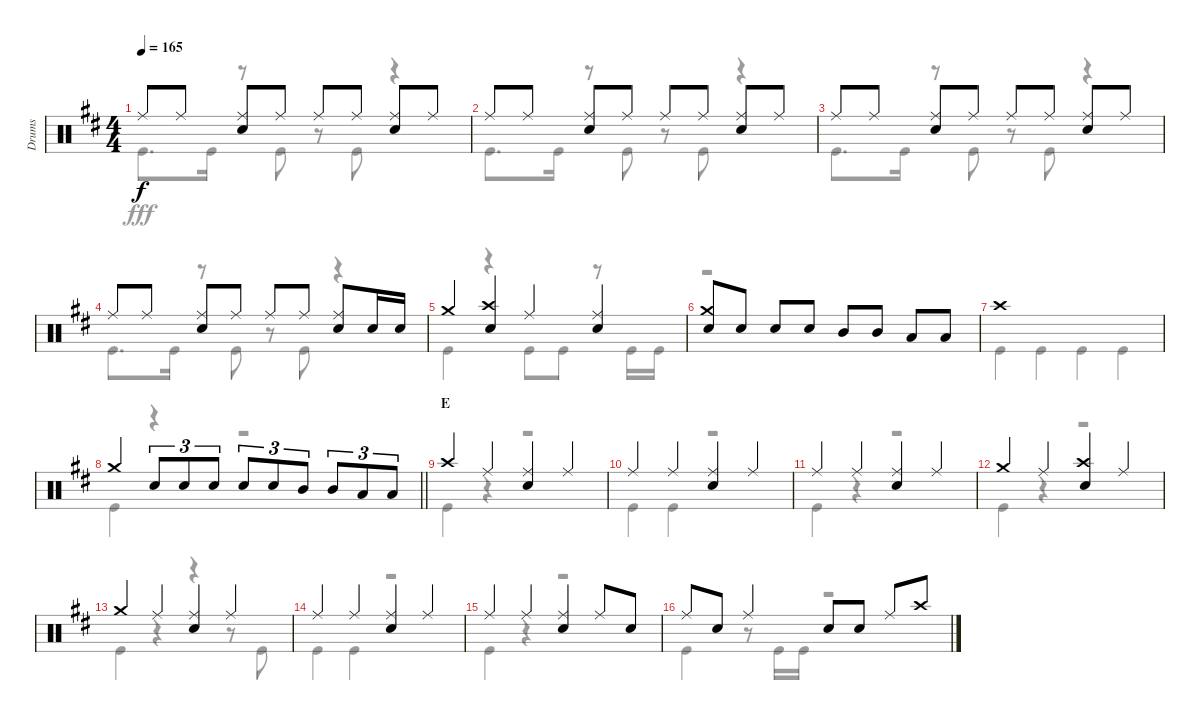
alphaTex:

\track ("Drums" "Drums") {instrument percussion}
\staff {score}
\articulation defaults
\voice
\ts (4 4)
\tempo 165
\clef neutral
\ks d "Ride (middle)".8{dy f} "Ride (middle)".8
("Ride (middle)" "Snare (hit) 2").8 "Ride (middle)".8 "Ride (middle)".8 "Ride (middle)".8 ("Ride (middle)" "Snare (hit) 2").8 "Ride (middle)".8 |
"Ride (middle)".8 "Ride (middle)".8 ("Ride (middle)" "Snare (hit) 2").8 "Ride (middle)".8 "Ride (middle)".8 "Ride (middle)".8 ("Ride (middle)" "Snare (hit) 2").8 "Ride (middle)".8 |
"Ride (middle)".8 "Ride (middle)".8 ("Ride (middle)" "Snare (hit) 2").8 "Ride (middle)".8 "Ride (middle)".8 "Ride (middle)".8 ("Ride (middle)" "Snare (hit) 2").8 "Ride (middle)".8 |
"Ride (middle)".8 "Ride (middle)".8 ("Ride (middle)" "Snare (hit) 2").8 "Ride (middle)".8 "Ride (middle)".8 "Ride (middle)".8 ("Ride (middle)" "Snare (hit) 2").8 "Snare (hit) 2".16 "Snare (hit) 2".16 |
"Crash medium (hit)".4 ("Crash high (hit)" "Snare (hit) 2").4 "Ride (middle)".4 ("Ride (middle)" "Snare (hit) 2").4 |
("Crash medium (hit)" "Snare (hit) 2").8 "Snare (hit) 2".8 "Snare (hit) 2".8 "Snare (hit) 2".8 "Mid Tom (hit)".8 "Mid Tom (hit)".8 "Low Tom (hit)".8 "Low Tom (hit)".8 |
"Crash high (hit)".1 |
\barLineRight lightlight "Crash medium (hit)".4 "Snare (hit) 2".8{tu (3 2)} "Snare (hit) 2".8{tu (3 2)} "Snare (hit) 2".8{tu (3 2)} "Snare (hit) 2".8{tu (3 2)} "Snare (hit) 2".8{tu (3 2)} "Mid Tom (hit)".8{tu (3 2)} "Mid Tom (hit)".8{tu (3 2)} "Low Tom (hit)".8{tu (3 2)} "Low Tom (hit)".8{tu (3 2)}
|
\section ("" "E")
"Crash high (hit)".4 "Ride (middle)".4 ("Ride (middle)" "Snare (hit) 2").4 "Ride (middle)".4 |
"Ride (middle)".4 "Ride (middle)".4 ("Ride (middle)" "Snare (hit) 2").4 "Ride (middle)".4 |
"Ride (middle)".4 "Ride (middle)".4 ("Ride (middle)" "Snare (hit) 2").4 "Ride (middle)".4 |
"Crash medium (hit)".4 "Ride (middle)".4 ("Crash high (hit)" "Snare (hit) 2").4 "Ride (middle)".4 |
"Crash medium (hit)".4 "Ride (middle)".4 ("Ride (middle)" "Snare (hit) 2").4 "Ride (middle)".4 |
"Ride (middle)".4 "Ride (middle)".4 ("Ride (middle)" "Snare (hit) 2").4 "Ride (middle)".4 |
"Ride (middle)".4 "Ride (middle)".4 ("Ride (middle)" "Snare (hit) 2").4 "Ride (middle)".8 "Snare (hit) 2".8 |
"Ride (middle)".8 "Snare (hit) 2".8 "Ride (middle)".4 "Snare (hit) 2".8 "Snare (hit) 2".8 "Ride (middle)".8 "Crash high (hit)".8
\voice
\clef neutral
\ottava regular
\simile none
\ks d "Kick (hit)".8{d dy fff} "Kick (hit)".16
r.8 "Kick (hit)".8 r.8 "Kick (hit)".8 r.4 |
"Kick (hit)".8{d} "Kick (hit)".16 r.8 "Kick (hit)".8 r.8 "Kick (hit)".8 r.4 |
"Kick (hit)".8{d} "Kick (hit)".16 r.8 "Kick (hit)".8 r.8 "Kick (hit)".8 r.4 |
"Kick (hit)".8{d} "Kick (hit)".16 r.8 "Kick (hit)".8 r.8 "Kick (hit)".8 r.4 |
"Kick (hit)".4 r.4 "Kick (hit)".8 "Kick (hit)".8 r.8 "Kick (hit)".16 "Kick (hit)".16 |
r.1 |
"Kick (hit)".4 "Kick (hit)".4 "Kick (hit)".4 "Kick (hit)".4 |
\barLineRight lightlight "Kick (hit)".4
r.4 r.2 |
"Kick (hit)".4 r.4 r.2 |
"Kick (hit)".4 "Kick (hit)".4 r.2 |
"Kick (hit)".4 r.4 r.2 |
"Kick (hit)".4 r.4 r.2 |
"Kick (hit)".4 r.4 r.4 r.8 "Kick (hit)".8 |
"Kick (hit)".4 "Kick (hit)".4 r.2 |
"Kick (hit)".4 r.4 r.2 |
"Kick (hit)".4 r.8 "Kick (hit)".16 "Kick (hit)".16 r.2
